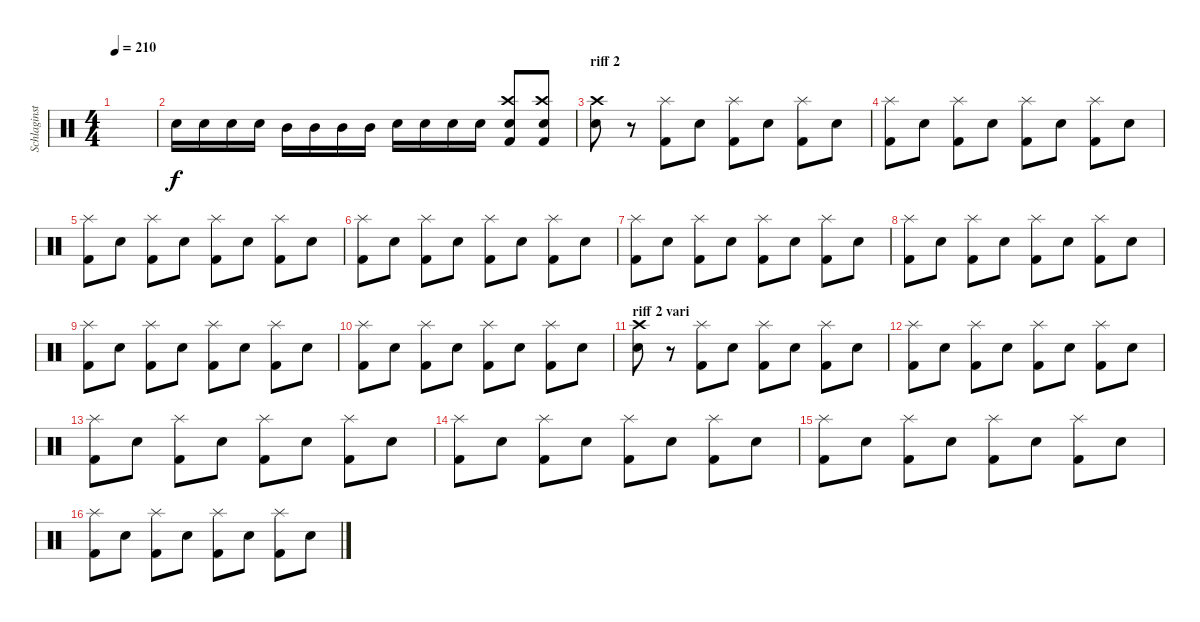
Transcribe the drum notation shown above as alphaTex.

\track ("Schlaginstrumente - Auswahl" "Schlaginst") {instrument percussion}
\staff {score}
\articulation defaults
\ts (4 4)
\tempo 210
\clef neutral
\ks c
|
"Electric Snare (hit)".16 "Electric Snare (hit)".16 "Electric Snare (hit)".16 "Electric Snare (hit)".16 "Mid Tom (hit)".16 "Mid Tom (hit)".16 "Mid Tom (hit)".16 "Mid Tom (hit)".16 "Electric Snare (hit)".16 "Electric Snare (hit)".16 "Electric Snare (hit)".16 "Electric Snare (hit)".16 ("Electric Snare (hit)" "Crash high (hit)" "Kick (hit) 2").8 ("Electric Snare (hit)" "Crash high (hit)" "Kick (hit) 2").8 |
\section ("" "riff 2")
("Electric Snare (hit)" "Crash high (hit)").8 r.8 ("Splash (hit)" "Kick (hit) 2").8 "Electric Snare (hit)".8 ("Splash (hit)" "Kick (hit) 2").8 "Electric Snare (hit)".8 ("Splash (hit)" "Kick (hit) 2").8 "Electric Snare (hit)".8 |
("Splash (hit)" "Kick (hit) 2").8 "Electric Snare (hit)".8 ("Splash (hit)" "Kick (hit) 2").8 "Electric Snare (hit)".8 ("Splash (hit)" "Kick (hit) 2").8 "Electric Snare (hit)".8 ("Splash (hit)" "Kick (hit) 2").8 "Electric Snare (hit)".8 |
("Splash (hit)" "Kick (hit) 2").8 "Electric Snare (hit)".8 ("Splash (hit)" "Kick (hit) 2").8 "Electric Snare (hit)".8 ("Splash (hit)" "Kick (hit) 2").8 "Electric Snare (hit)".8 ("Splash (hit)" "Kick (hit) 2").8 "Electric Snare (hit)".8 |
("Splash (hit)" "Kick (hit) 2").8 "Electric Snare (hit)".8 ("Splash (hit)" "Kick (hit) 2").8 "Electric Snare (hit)".8 ("Splash (hit)" "Kick (hit) 2").8 "Electric Snare (hit)".8 ("Splash (hit)" "Kick (hit) 2").8 "Electric Snare (hit)".8 |
("Splash (hit)" "Kick (hit) 2").8 "Electric Snare (hit)".8 ("Splash (hit)" "Kick (hit) 2").8 "Electric Snare (hit)".8 ("Splash (hit)" "Kick (hit) 2").8 "Electric Snare (hit)".8 ("Splash (hit)" "Kick (hit) 2").8 "Electric Snare (hit)".8 |
("Splash (hit)" "Kick (hit) 2").8 "Electric Snare (hit)".8 ("Splash (hit)" "Kick (hit) 2").8 "Electric Snare (hit)".8 ("Splash (hit)" "Kick (hit) 2").8 "Electric Snare (hit)".8 ("Splash (hit)" "Kick (hit) 2").8 "Electric Snare (hit)".8 |
("Splash (hit)" "Kick (hit) 2").8 "Electric Snare (hit)".8 ("Splash (hit)" "Kick (hit) 2").8 "Electric Snare (hit)".8 ("Splash (hit)" "Kick (hit) 2").8 "Electric Snare (hit)".8 ("Splash (hit)" "Kick (hit) 2").8 "Electric Snare (hit)".8 |
("Splash (hit)" "Kick (hit) 2").8 "Electric Snare (hit)".8 ("Splash (hit)" "Kick (hit) 2").8 "Electric Snare (hit)".8 ("Splash (hit)" "Kick (hit) 2").8 "Electric Snare (hit)".8 ("Splash (hit)" "Kick (hit) 2").8 "Electric Snare (hit)".8 |
\section ("" "riff 2 vari")
("Electric Snare (hit)" "Crash high (hit)").8 r.8 ("Splash (hit)" "Kick (hit) 2").8 "Electric Snare (hit)".8 ("Splash (hit)" "Kick (hit) 2").8 "Electric Snare (hit)".8 ("Splash (hit)" "Kick (hit) 2").8 "Electric Snare (hit)".8 |
("Splash (hit)" "Kick (hit) 2").8 "Electric Snare (hit)".8 ("Splash (hit)" "Kick (hit) 2").8 "Electric Snare (hit)".8 ("Splash (hit)" "Kick (hit) 2").8 "Electric Snare (hit)".8 ("Splash (hit)" "Kick (hit) 2").8 "Electric Snare (hit)".8 |
("Splash (hit)" "Kick (hit) 2").8 "Electric Snare (hit)".8 ("Splash (hit)" "Kick (hit) 2").8 "Electric Snare (hit)".8 ("Splash (hit)" "Kick (hit) 2").8 "Electric Snare (hit)".8 ("Splash (hit)" "Kick (hit) 2").8 "Electric Snare (hit)".8 |
("Splash (hit)" "Kick (hit) 2").8 "Electric Snare (hit)".8 ("Splash (hit)" "Kick (hit) 2").8 "Electric Snare (hit)".8 ("Splash (hit)" "Kick (hit) 2").8 "Electric Snare (hit)".8 ("Splash (hit)" "Kick (hit) 2").8 "Electric Snare (hit)".8 |
("Splash (hit)" "Kick (hit) 2").8 "Electric Snare (hit)".8 ("Splash (hit)" "Kick (hit) 2").8 "Electric Snare (hit)".8 ("Splash (hit)" "Kick (hit) 2").8 "Electric Snare (hit)".8 ("Splash (hit)" "Kick (hit) 2").8 "Electric Snare (hit)".8 |
("Splash (hit)" "Kick (hit) 2").8 "Electric Snare (hit)".8 ("Splash (hit)" "Kick (hit) 2").8 "Electric Snare (hit)".8 ("Splash (hit)" "Kick (hit) 2").8 "Electric Snare (hit)".8 ("Splash (hit)" "Kick (hit) 2").8 "Electric Snare (hit)".8
